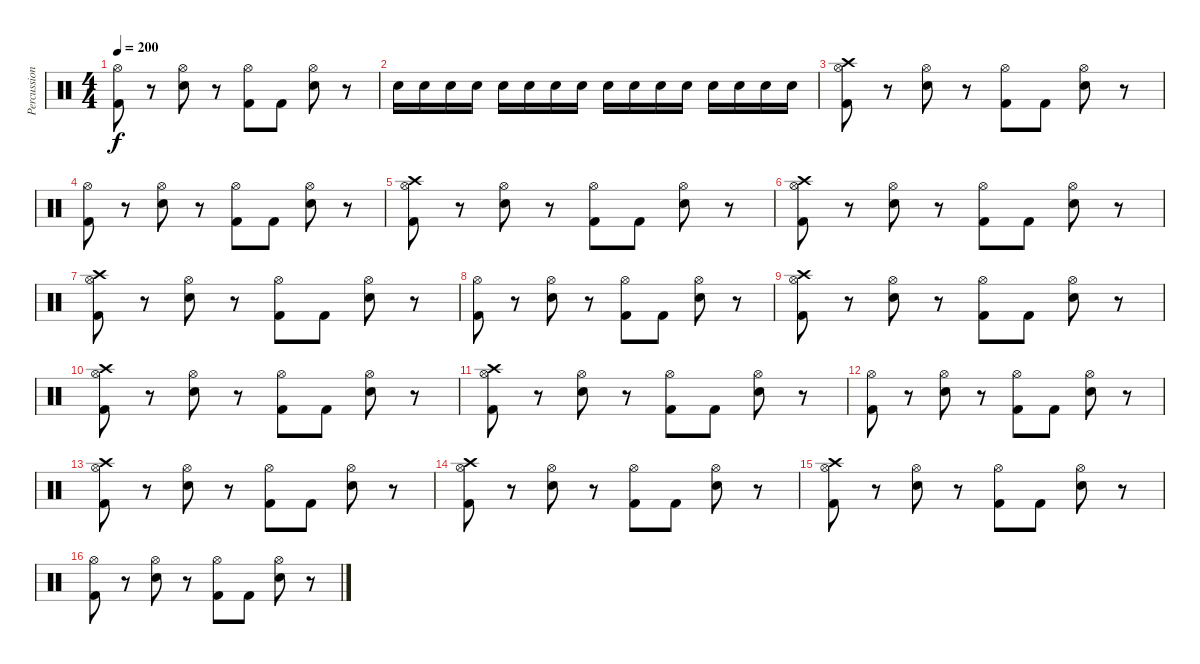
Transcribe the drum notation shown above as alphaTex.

\track ("Percussioni" "Percussion") {instrument percussion}
\staff {score}
\articulation defaults
\ts (4 4)
\tempo 200
\clef neutral
\ks c
("Kick (hit) 2" "Hi-Hat (open)").8{dy f} r.8 ("Snare (hit) 2" "Hi-Hat (open)").8 r.8 ("Kick (hit) 2" "Hi-Hat (open)").8 "Kick (hit) 2".8 ("Snare (hit) 2" "Hi-Hat (open)").8 r.8 |
"Snare (hit) 2".16 "Snare (hit) 2".16 "Snare (hit) 2".16 "Snare (hit) 2".16 "Snare (hit) 2".16 "Snare (hit) 2".16 "Snare (hit) 2".16 "Snare (hit) 2".16 "Snare (hit) 2".16 "Snare (hit) 2".16 "Snare (hit) 2".16 "Snare (hit) 2".16 "Snare (hit) 2".16 "Snare (hit) 2".16 "Snare (hit) 2".16 "Snare (hit) 2".16 |
("Crash high (hit)" "Kick (hit) 2" "Hi-Hat (open)").8 r.8 ("Snare (hit) 2" "Hi-Hat (open)").8 r.8 ("Kick (hit) 2" "Hi-Hat (open)").8 "Kick (hit) 2".8 ("Snare (hit) 2" "Hi-Hat (open)").8 r.8 |
("Kick (hit) 2" "Hi-Hat (open)").8 r.8 ("Snare (hit) 2" "Hi-Hat (open)").8 r.8 ("Kick (hit) 2" "Hi-Hat (open)").8 "Kick (hit) 2".8 ("Snare (hit) 2" "Hi-Hat (open)").8 r.8 |
("Crash high (hit)" "Kick (hit) 2" "Hi-Hat (open)").8 r.8 ("Snare (hit) 2" "Hi-Hat (open)").8 r.8 ("Kick (hit) 2" "Hi-Hat (open)").8 "Kick (hit) 2".8 ("Snare (hit) 2" "Hi-Hat (open)").8 r.8 |
("Crash high (hit)" "Kick (hit) 2" "Hi-Hat (open)").8 r.8 ("Snare (hit) 2" "Hi-Hat (open)").8 r.8 ("Kick (hit) 2" "Hi-Hat (open)").8 "Kick (hit) 2".8 ("Snare (hit) 2" "Hi-Hat (open)").8 r.8 |
("Crash high (hit)" "Kick (hit) 2" "Hi-Hat (open)").8 r.8 ("Snare (hit) 2" "Hi-Hat (open)").8 r.8 ("Kick (hit) 2" "Hi-Hat (open)").8 "Kick (hit) 2".8 ("Snare (hit) 2" "Hi-Hat (open)").8 r.8 |
("Kick (hit) 2" "Hi-Hat (open)").8 r.8 ("Snare (hit) 2" "Hi-Hat (open)").8 r.8 ("Kick (hit) 2" "Hi-Hat (open)").8 "Kick (hit) 2".8 ("Snare (hit) 2" "Hi-Hat (open)").8 r.8 |
("Crash high (hit)" "Kick (hit) 2" "Hi-Hat (open)").8 r.8 ("Snare (hit) 2" "Hi-Hat (open)").8 r.8 ("Kick (hit) 2" "Hi-Hat (open)").8 "Kick (hit) 2".8 ("Snare (hit) 2" "Hi-Hat (open)").8 r.8 |
("Crash high (hit)" "Kick (hit) 2" "Hi-Hat (open)").8 r.8 ("Snare (hit) 2" "Hi-Hat (open)").8 r.8 ("Kick (hit) 2" "Hi-Hat (open)").8 "Kick (hit) 2".8 ("Snare (hit) 2" "Hi-Hat (open)").8 r.8 |
("Crash high (hit)" "Kick (hit) 2" "Hi-Hat (open)").8 r.8 ("Snare (hit) 2" "Hi-Hat (open)").8 r.8 ("Kick (hit) 2" "Hi-Hat (open)").8 "Kick (hit) 2".8 ("Snare (hit) 2" "Hi-Hat (open)").8 r.8 |
("Kick (hit) 2" "Hi-Hat (open)").8 r.8 ("Snare (hit) 2" "Hi-Hat (open)").8 r.8 ("Kick (hit) 2" "Hi-Hat (open)").8 "Kick (hit) 2".8 ("Snare (hit) 2" "Hi-Hat (open)").8 r.8 |
("Crash high (hit)" "Kick (hit) 2" "Hi-Hat (open)").8 r.8 ("Snare (hit) 2" "Hi-Hat (open)").8 r.8 ("Kick (hit) 2" "Hi-Hat (open)").8 "Kick (hit) 2".8 ("Snare (hit) 2" "Hi-Hat (open)").8 r.8 |
("Crash high (hit)" "Kick (hit) 2" "Hi-Hat (open)").8 r.8 ("Snare (hit) 2" "Hi-Hat (open)").8 r.8 ("Kick (hit) 2" "Hi-Hat (open)").8 "Kick (hit) 2".8 ("Snare (hit) 2" "Hi-Hat (open)").8 r.8 |
("Crash high (hit)" "Kick (hit) 2" "Hi-Hat (open)").8 r.8 ("Snare (hit) 2" "Hi-Hat (open)").8 r.8 ("Kick (hit) 2" "Hi-Hat (open)").8 "Kick (hit) 2".8 ("Snare (hit) 2" "Hi-Hat (open)").8 r.8 |
("Kick (hit) 2" "Hi-Hat (open)").8 r.8 ("Snare (hit) 2" "Hi-Hat (open)").8 r.8 ("Kick (hit) 2" "Hi-Hat (open)").8 "Kick (hit) 2".8 ("Snare (hit) 2" "Hi-Hat (open)").8 r.8
